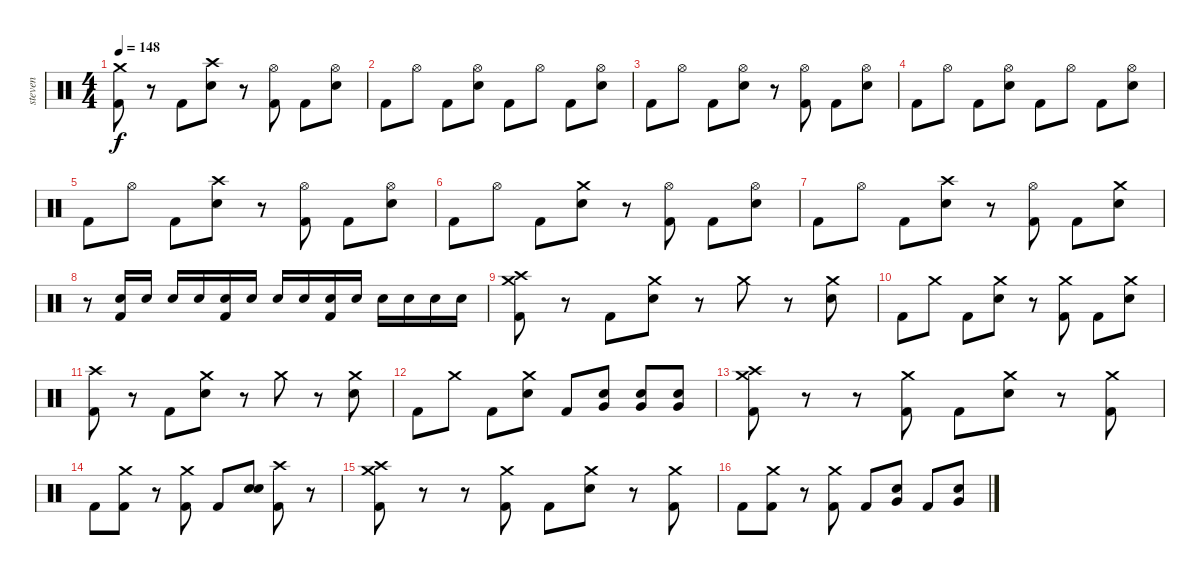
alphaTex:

\track ("steven" "steven") {instrument percussion}
\staff {score}
\articulation defaults
\ts (4 4)
\tempo 148
\clef neutral
\ks c
("Crash medium (hit)" "Kick (hit) 2").8{dy f} r.8 "Kick (hit) 2".8 ("Crash high (hit)" "Electric Snare (hit)").8 r.8 ("Hi-Hat (open)" "Kick (hit) 2").8 "Kick (hit) 2".8 ("Hi-Hat (open)" "Electric Snare (hit)").8 |
"Kick (hit) 2".8 "Hi-Hat (open)".8 "Kick (hit) 2".8 ("Hi-Hat (open)" "Electric Snare (hit)").8 "Kick (hit) 2".8 "Hi-Hat (open)".8 "Kick (hit) 2".8 ("Hi-Hat (open)" "Electric Snare (hit)").8 |
"Kick (hit) 2".8 "Hi-Hat (open)".8 "Kick (hit) 2".8 ("Hi-Hat (open)" "Electric Snare (hit)").8 r.8 ("Hi-Hat (open)" "Kick (hit) 2").8 "Kick (hit) 2".8 ("Hi-Hat (open)" "Electric Snare (hit)").8 |
"Kick (hit) 2".8 "Hi-Hat (open)".8 "Kick (hit) 2".8 ("Hi-Hat (open)" "Electric Snare (hit)").8 "Kick (hit) 2".8 "Hi-Hat (open)".8 "Kick (hit) 2".8 ("Hi-Hat (open)" "Electric Snare (hit)").8 |
"Kick (hit) 2".8 "Hi-Hat (open)".8 "Kick (hit) 2".8 ("Crash high (hit)" "Electric Snare (hit)").8 r.8 ("Hi-Hat (open)" "Kick (hit) 2").8 "Kick (hit) 2".8 ("Hi-Hat (open)" "Electric Snare (hit)").8 |
"Kick (hit) 2".8 "Hi-Hat (open)".8 "Kick (hit) 2".8 ("Crash medium (hit)" "Electric Snare (hit)").8 r.8 ("Hi-Hat (open)" "Kick (hit) 2").8 "Kick (hit) 2".8 ("Hi-Hat (open)" "Electric Snare (hit)").8 |
"Kick (hit) 2".8 "Hi-Hat (open)".8 "Kick (hit) 2".8 ("Crash high (hit)" "Electric Snare (hit)").8 r.8 ("Hi-Hat (open)" "Kick (hit) 2").8 "Kick (hit) 2".8 ("Crash medium (hit)" "Electric Snare (hit)").8 |
r.8 ("Electric Snare (hit)" "Kick (hit) 2").16 "Electric Snare (hit)".16 "Electric Snare (hit)".16 "Electric Snare (hit)".16 ("Electric Snare (hit)" "Kick (hit) 2").16 "Electric Snare (hit)".16 "Electric Snare (hit)".16 "Electric Snare (hit)".16 ("Electric Snare (hit)" "Kick (hit) 2").16 "Electric Snare (hit)".16 "Electric Snare (hit)".16 "Electric Snare (hit)".16 "Electric Snare (hit)".16 "Electric Snare (hit)".16 |
("Crash medium (hit)" "Crash high (hit)" "Kick (hit) 2").8 r.8 "Kick (hit) 2".8 ("Crash medium (hit)" "Electric Snare (hit)").8 r.8 "Crash medium (hit)".8 r.8 ("Crash medium (hit)" "Electric Snare (hit)").8 |
"Kick (hit) 2".8 "Crash medium (hit)".8 "Kick (hit) 2".8 ("Crash medium (hit)" "Electric Snare (hit)").8 r.8 ("Crash medium (hit)" "Kick (hit) 2").8 "Kick (hit) 2".8 ("Crash medium (hit)" "Electric Snare (hit)").8 |
("Crash high (hit)" "Kick (hit) 2").8 r.8 "Kick (hit) 2".8 ("Crash medium (hit)" "Electric Snare (hit)").8 r.8 "Crash medium (hit)".8 r.8 ("Crash medium (hit)" "Electric Snare (hit)").8 |
"Kick (hit) 2".8 "Crash medium (hit)".8 "Kick (hit) 2".8 ("Crash medium (hit)" "Electric Snare (hit)").8 "Kick (hit) 2".8 ("Very Low Tom (hit)" "Electric Snare (hit)").8 ("Very Low Tom (hit)" "Electric Snare (hit)").8 ("Very Low Tom (hit)" "Electric Snare (hit)").8 |
("Crash medium (hit)" "Crash high (hit)" "Kick (hit) 2").8 r.8 r.8 ("Crash medium (hit)" "Kick (hit) 2").8 "Kick (hit) 2".8 ("Crash medium (hit)" "Electric Snare (hit)").8 r.8 ("Crash medium (hit)" "Kick (hit) 2").8 |
"Kick (hit) 2".8 ("Crash medium (hit)" "Kick (hit) 2").8 r.8 ("Crash medium (hit)" "Kick (hit) 2").8 "Kick (hit) 2".8 ("Electric Snare (hit)" "Electric Snare (hit)").8 ("Crash high (hit)" "Kick (hit) 2").8 r.8 |
("Crash medium (hit)" "Crash high (hit)" "Kick (hit) 2").8 r.8 r.8 ("Crash medium (hit)" "Kick (hit) 2").8 "Kick (hit) 2".8 ("Crash medium (hit)" "Electric Snare (hit)").8 r.8 ("Crash medium (hit)" "Kick (hit) 2").8 |
"Kick (hit) 2".8 ("Crash medium (hit)" "Kick (hit) 2").8 r.8 ("Crash medium (hit)" "Kick (hit) 2").8 "Kick (hit) 2".8 ("Electric Snare (hit)" "Very Low Tom (hit)").8 "Kick (hit) 2".8 ("Electric Snare (hit)" "Very Low Tom (hit)").8
